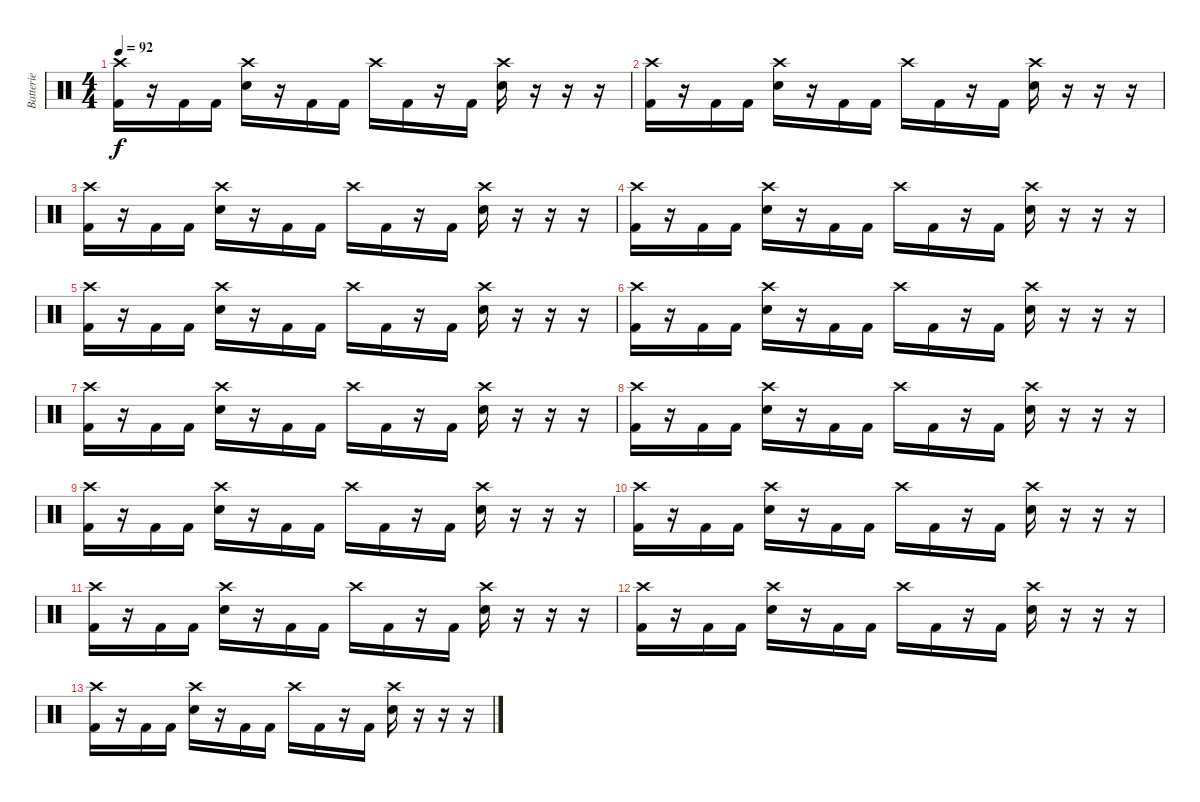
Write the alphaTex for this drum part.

\track ("Batterie" "Batterie") {instrument percussion}
\staff {score}
\articulation defaults
\ts (4 4)
\tempo 92
\clef neutral
\ks c
("Crash high (hit)" "Kick (hit) 2").16{dy f} r.16 "Kick (hit) 2".16 "Kick (hit) 2".16 ("Crash high (hit)" "Electric Snare (hit)").16 r.16 "Kick (hit) 2".16 "Kick (hit) 2".16 "Crash high (hit)".16 "Kick (hit) 2".16 r.16 "Kick (hit) 2".16 ("Crash high (hit)" "Electric Snare (hit)").16 r.16 r.16 r.16 |
("Crash high (hit)" "Kick (hit) 2").16 r.16 "Kick (hit) 2".16 "Kick (hit) 2".16 ("Crash high (hit)" "Electric Snare (hit)").16 r.16 "Kick (hit) 2".16 "Kick (hit) 2".16 "Crash high (hit)".16 "Kick (hit) 2".16 r.16 "Kick (hit) 2".16 ("Crash high (hit)" "Electric Snare (hit)").16 r.16 r.16 r.16 |
("Crash high (hit)" "Kick (hit) 2").16 r.16 "Kick (hit) 2".16 "Kick (hit) 2".16 ("Crash high (hit)" "Electric Snare (hit)").16 r.16 "Kick (hit) 2".16 "Kick (hit) 2".16 "Crash high (hit)".16 "Kick (hit) 2".16 r.16 "Kick (hit) 2".16 ("Crash high (hit)" "Electric Snare (hit)").16 r.16 r.16 r.16 |
("Crash high (hit)" "Kick (hit) 2").16 r.16 "Kick (hit) 2".16 "Kick (hit) 2".16 ("Crash high (hit)" "Electric Snare (hit)").16 r.16 "Kick (hit) 2".16 "Kick (hit) 2".16 "Crash high (hit)".16 "Kick (hit) 2".16 r.16 "Kick (hit) 2".16 ("Crash high (hit)" "Electric Snare (hit)").16 r.16 r.16 r.16 |
("Crash high (hit)" "Kick (hit) 2").16 r.16 "Kick (hit) 2".16 "Kick (hit) 2".16 ("Crash high (hit)" "Electric Snare (hit)").16 r.16 "Kick (hit) 2".16 "Kick (hit) 2".16 "Crash high (hit)".16 "Kick (hit) 2".16 r.16 "Kick (hit) 2".16 ("Crash high (hit)" "Electric Snare (hit)").16 r.16 r.16 r.16 |
("Crash high (hit)" "Kick (hit) 2").16 r.16 "Kick (hit) 2".16 "Kick (hit) 2".16 ("Crash high (hit)" "Electric Snare (hit)").16 r.16 "Kick (hit) 2".16 "Kick (hit) 2".16 "Crash high (hit)".16 "Kick (hit) 2".16 r.16 "Kick (hit) 2".16 ("Crash high (hit)" "Electric Snare (hit)").16 r.16 r.16 r.16 |
("Crash high (hit)" "Kick (hit) 2").16 r.16 "Kick (hit) 2".16 "Kick (hit) 2".16 ("Crash high (hit)" "Electric Snare (hit)").16 r.16 "Kick (hit) 2".16 "Kick (hit) 2".16 "Crash high (hit)".16 "Kick (hit) 2".16 r.16 "Kick (hit) 2".16 ("Crash high (hit)" "Electric Snare (hit)").16 r.16 r.16 r.16 |
("Crash high (hit)" "Kick (hit) 2").16 r.16 "Kick (hit) 2".16 "Kick (hit) 2".16 ("Crash high (hit)" "Electric Snare (hit)").16 r.16 "Kick (hit) 2".16 "Kick (hit) 2".16 "Crash high (hit)".16 "Kick (hit) 2".16 r.16 "Kick (hit) 2".16 ("Crash high (hit)" "Electric Snare (hit)").16 r.16 r.16 r.16 |
("Crash high (hit)" "Kick (hit) 2").16 r.16 "Kick (hit) 2".16 "Kick (hit) 2".16 ("Crash high (hit)" "Electric Snare (hit)").16 r.16 "Kick (hit) 2".16 "Kick (hit) 2".16 "Crash high (hit)".16 "Kick (hit) 2".16 r.16 "Kick (hit) 2".16 ("Crash high (hit)" "Electric Snare (hit)").16 r.16 r.16 r.16 |
("Crash high (hit)" "Kick (hit) 2").16 r.16 "Kick (hit) 2".16 "Kick (hit) 2".16 ("Crash high (hit)" "Electric Snare (hit)").16 r.16 "Kick (hit) 2".16 "Kick (hit) 2".16 "Crash high (hit)".16 "Kick (hit) 2".16 r.16 "Kick (hit) 2".16 ("Crash high (hit)" "Electric Snare (hit)").16 r.16 r.16 r.16 |
("Crash high (hit)" "Kick (hit) 2").16 r.16 "Kick (hit) 2".16 "Kick (hit) 2".16 ("Crash high (hit)" "Electric Snare (hit)").16 r.16 "Kick (hit) 2".16 "Kick (hit) 2".16 "Crash high (hit)".16 "Kick (hit) 2".16 r.16 "Kick (hit) 2".16 ("Crash high (hit)" "Electric Snare (hit)").16 r.16 r.16 r.16 |
("Crash high (hit)" "Kick (hit) 2").16 r.16 "Kick (hit) 2".16 "Kick (hit) 2".16 ("Crash high (hit)" "Electric Snare (hit)").16 r.16 "Kick (hit) 2".16 "Kick (hit) 2".16 "Crash high (hit)".16 "Kick (hit) 2".16 r.16 "Kick (hit) 2".16 ("Crash high (hit)" "Electric Snare (hit)").16 r.16 r.16 r.16 |
("Crash high (hit)" "Kick (hit) 2").16 r.16 "Kick (hit) 2".16 "Kick (hit) 2".16 ("Crash high (hit)" "Electric Snare (hit)").16 r.16 "Kick (hit) 2".16 "Kick (hit) 2".16 "Crash high (hit)".16 "Kick (hit) 2".16 r.16 "Kick (hit) 2".16 ("Crash high (hit)" "Electric Snare (hit)").16 r.16 r.16 r.16
